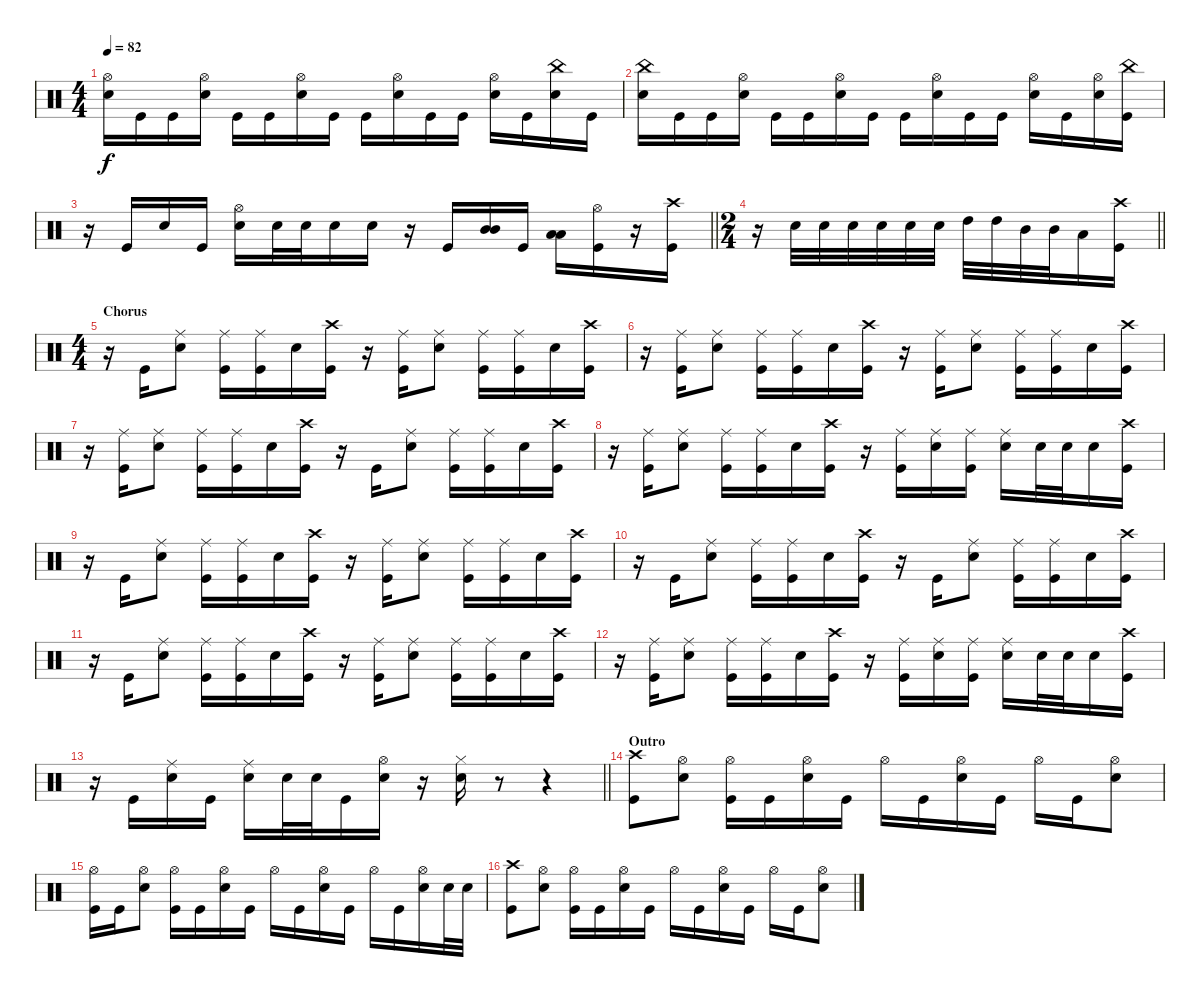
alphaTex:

\track "" {instrument percussion}
\staff {score}
\articulation defaults
\ts (4 4)
\tempo 82
\clef neutral
\ks c
("Hi-Hat (open)" "Snare (hit) 2").16{dy f} "Kick (hit)".16 "Kick (hit)".16 ("Hi-Hat (open)" "Snare (hit) 2").16 "Kick (hit)".16 "Kick (hit)".16 ("Snare (hit) 2" "Hi-Hat (open)").16 "Kick (hit)".16 "Kick (hit)".16 ("Snare (hit) 2" "Hi-Hat (open)").16 "Kick (hit)".16 "Kick (hit)".16 ("Hi-Hat (open)" "Snare (hit) 2").16 "Kick (hit)".16 ("China (hit)" "Snare (hit) 2").16 "Kick (hit)".16 |
("China (hit)" "Snare (hit) 2").16 "Kick (hit)".16 "Kick (hit)".16 ("Hi-Hat (open)" "Snare (hit) 2").16 "Kick (hit)".16 "Kick (hit)".16 ("Hi-Hat (open)" "Snare (hit) 2").16 "Kick (hit)".16 "Kick (hit)".16 ("Hi-Hat (open)" "Snare (hit) 2").16 "Kick (hit)".16 "Kick (hit)".16 ("Hi-Hat (open)" "Snare (hit) 2").16 "Kick (hit)".16 ("Hi-Hat (open)" "Snare (hit) 2").16 ("Kick (hit)" "China (hit)").16 |
\barLineRight lightlight
r.16 "Kick (hit)".16 "Snare (hit) 2".16 "Kick (hit)".16 ("Snare (hit) 2" "Hi-Hat (open)").16 "Snare (hit) 2".32 "Snare (hit) 2".32 "Snare (hit) 2".16 "Snare (hit) 2".16 r.16 "Kick (hit)".16 ("Mid Tom (hit)" "Mid Tom (hit)").16 "Kick (hit)".16 ("Low Tom (hit)" "Low Tom (hit)").16 ("Kick (hit)" "Hi-Hat (open)").16 r.16 ("Crash high (hit)" "Kick (hit)").16 |
\ts (2 4)
\barLineRight lightlight
r.16 "Snare (hit) 2".32 "Snare (hit) 2".32 "Snare (hit) 2".32 "Snare (hit) 2".32 "Snare (hit) 2".32 "Snare (hit) 2".32 "High Tom (hit)".32 "High Tom (hit)".32 "Mid Tom (hit)".32 "Mid Tom (hit)".32 "Low Tom (hit)".16 ("Crash high (hit)" "Kick (hit)").16 |
\ts (4 4)
\section ("" "Chorus")
r.16{txt ""} "Kick (hit)".16 ("Ride (middle)" "Snare (hit) 2").8 ("Ride (middle)" "Kick (hit)").16 ("Ride (middle)" "Kick (hit)").16 "Snare (hit) 2".16 ("Crash high (hit)" "Kick (hit)").16 r.16 ("Kick (hit)" "Ride (middle)").16 ("Ride (middle)" "Snare (hit) 2").8 ("Ride (middle)" "Kick (hit)").16 ("Ride (middle)" "Kick (hit)").16 "Snare (hit) 2".16 ("Crash high (hit)" "Kick (hit)").16 |
r.16 ("Kick (hit)" "Ride (middle)").16 ("Ride (middle)" "Snare (hit) 2").8 ("Ride (middle)" "Kick (hit)").16 ("Ride (middle)" "Kick (hit)").16 "Snare (hit) 2".16 ("Crash high (hit)" "Kick (hit)").16 r.16 ("Kick (hit)" "Ride (middle)").16 ("Ride (middle)" "Snare (hit) 2").8 ("Ride (middle)" "Kick (hit)").16 ("Ride (middle)" "Kick (hit)").16 "Snare (hit) 2".16 ("Crash high (hit)" "Kick (hit)").16 |
r.16 ("Kick (hit)" "Ride (middle)").16 ("Ride (middle)" "Snare (hit) 2").8 ("Ride (middle)" "Kick (hit)").16 ("Ride (middle)" "Kick (hit)").16 "Snare (hit) 2".16 ("Crash high (hit)" "Kick (hit)").16 r.16 "Kick (hit)".16 ("Ride (middle)" "Snare (hit) 2").8 ("Ride (middle)" "Kick (hit)").16 ("Ride (middle)" "Kick (hit)").16 "Snare (hit) 2".16 ("Crash high (hit)" "Kick (hit)").16 |
r.16 ("Kick (hit)" "Ride (middle)").16 ("Ride (middle)" "Snare (hit) 2").8 ("Ride (middle)" "Kick (hit)").16 ("Ride (middle)" "Kick (hit)").16 "Snare (hit) 2".16 ("Crash high (hit)" "Kick (hit)").16 r.16 ("Ride (middle)" "Kick (hit)").16 ("Ride (middle)" "Snare (hit) 2").16 ("Ride (middle)" "Kick (hit)").16 ("Ride (middle)" "Snare (hit) 2").16 "Snare (hit) 2".32 "Snare (hit) 2".32 "Snare (hit) 2".16 ("Crash high (hit)" "Kick (hit)").16 |
r.16 "Kick (hit)".16 ("Ride (middle)" "Snare (hit) 2").8 ("Ride (middle)" "Kick (hit)").16 ("Ride (middle)" "Kick (hit)").16 "Snare (hit) 2".16 ("Crash high (hit)" "Kick (hit)").16 r.16 ("Kick (hit)" "Ride (middle)").16 ("Ride (middle)" "Snare (hit) 2").8 ("Ride (middle)" "Kick (hit)").16 ("Ride (middle)" "Kick (hit)").16 "Snare (hit) 2".16 ("Crash high (hit)" "Kick (hit)").16 |
r.16 "Kick (hit)".16 ("Ride (middle)" "Snare (hit) 2").8 ("Ride (middle)" "Kick (hit)").16 ("Ride (middle)" "Kick (hit)").16 "Snare (hit) 2".16 ("Crash high (hit)" "Kick (hit)").16 r.16 "Kick (hit)".16 ("Ride (middle)" "Snare (hit) 2").8 ("Ride (middle)" "Kick (hit)").16 ("Ride (middle)" "Kick (hit)").16 "Snare (hit) 2".16 ("Crash high (hit)" "Kick (hit)").16 |
r.16 "Kick (hit)".16 ("Ride (middle)" "Snare (hit) 2").8 ("Ride (middle)" "Kick (hit)").16 ("Ride (middle)" "Kick (hit)").16 "Snare (hit) 2".16 ("Crash high (hit)" "Kick (hit)").16 r.16 ("Kick (hit)" "Ride (middle)").16 ("Ride (middle)" "Snare (hit) 2").8 ("Ride (middle)" "Kick (hit)").16 ("Ride (middle)" "Kick (hit)").16 "Snare (hit) 2".16 ("Crash high (hit)" "Kick (hit)").16 |
r.16 ("Kick (hit)" "Ride (middle)").16 ("Ride (middle)" "Snare (hit) 2").8 ("Ride (middle)" "Kick (hit)").16 ("Ride (middle)" "Kick (hit)").16 "Snare (hit) 2".16 ("Crash high (hit)" "Kick (hit)").16 r.16 ("Ride (middle)" "Kick (hit)").16 ("Ride (middle)" "Snare (hit) 2").16 ("Ride (middle)" "Kick (hit)").16 ("Ride (middle)" "Snare (hit) 2").16 "Snare (hit) 2".32 "Snare (hit) 2".32 "Snare (hit) 2".16 ("Crash high (hit)" "Kick (hit)").16 |
\barLineRight lightlight
r.16 "Kick (hit)".16 ("Ride (middle)" "Snare (hit) 2").16 "Kick (hit)".16 ("Ride (middle)" "Snare (hit) 2").16 "Snare (hit) 2".32 "Snare (hit) 2".32 "Kick (hit)".16 ("Hi-Hat (open)" "Snare (hit) 2").16 r.16 ("Hi-Hat (closed)" "Snare (hit) 2").16 r.8 r.4 |
\section ("" "Outro")
("Crash high (hit)" "Kick (hit)").8{txt ""} ("Snare (hit) 2" "Hi-Hat (open)").8 ("Kick (hit)" "Hi-Hat (open)").16 "Kick (hit)".16 ("Snare (hit) 2" "Hi-Hat (open)").16 "Kick (hit)".16 "Hi-Hat (open)".16 "Kick (hit)".16 ("Snare (hit) 2" "Hi-Hat (open)").16 "Kick (hit)".16 "Hi-Hat (open)".16 "Kick (hit)".16 ("Snare (hit) 2" "Hi-Hat (open)").8 |
("Hi-Hat (open)" "Kick (hit)").16 "Kick (hit)".16 ("Snare (hit) 2" "Hi-Hat (open)").8 ("Kick (hit)" "Hi-Hat (open)").16 "Kick (hit)".16 ("Snare (hit) 2" "Hi-Hat (open)").16 "Kick (hit)".16 "Hi-Hat (open)".16 "Kick (hit)".16 ("Snare (hit) 2" "Hi-Hat (open)").16 "Kick (hit)".16 "Hi-Hat (open)".16 "Kick (hit)".16 ("Snare (hit) 2" "Hi-Hat (open)").16 "Snare (hit) 2".32 "Snare (hit) 2".32 |
("Crash high (hit)" "Kick (hit)").8 ("Snare (hit) 2" "Hi-Hat (open)").8 ("Kick (hit)" "Hi-Hat (open)").16 "Kick (hit)".16 ("Snare (hit) 2" "Hi-Hat (open)").16 "Kick (hit)".16 "Hi-Hat (open)".16 "Kick (hit)".16 ("Snare (hit) 2" "Hi-Hat (open)").16 "Kick (hit)".16 "Hi-Hat (open)".16 "Kick (hit)".16 ("Snare (hit) 2" "Hi-Hat (open)").8
